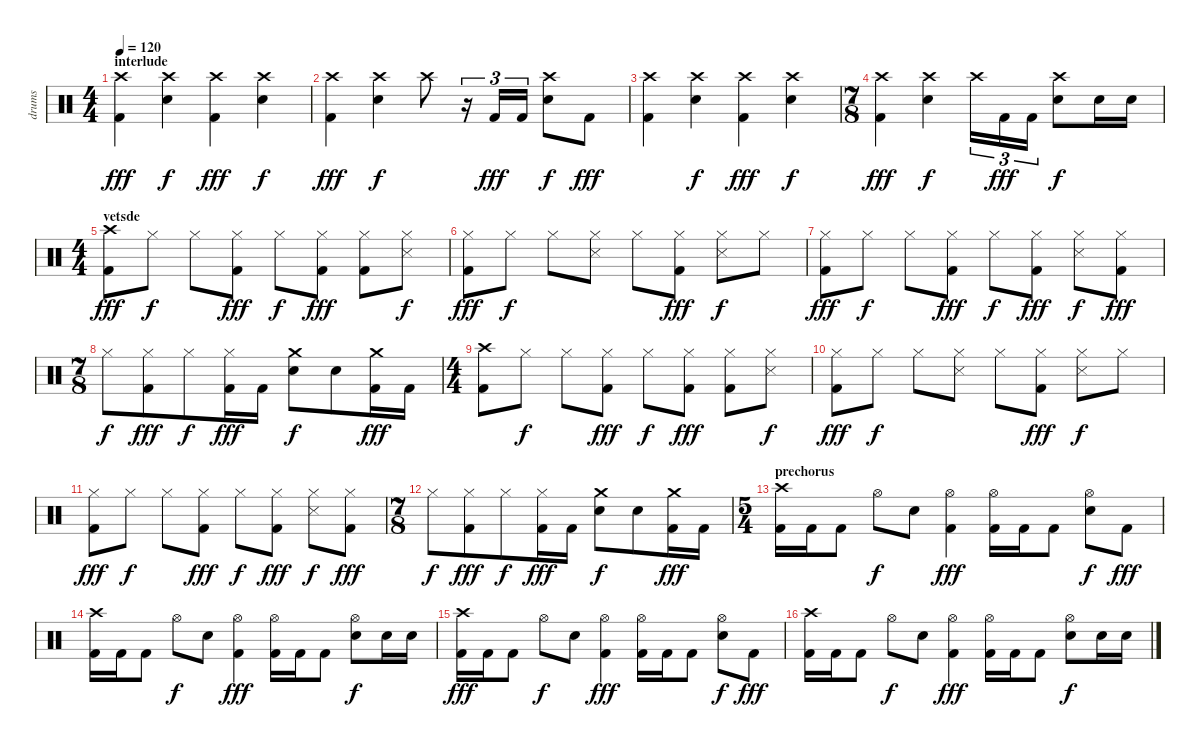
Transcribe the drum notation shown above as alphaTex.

\track ("drums" "drums") {instrument percussion}
\staff {score}
\articulation defaults
\ts (4 4)
\section ("" "interlude")
\tempo 120
\clef neutral
\ks c
("Crash high (hit)" "Kick (hit) 2").4{dy fff} ("Crash high (hit)" "Snare (hit) 2").4{dy f} ("Crash high (hit)" "Kick (hit) 2").4{dy fff} ("Crash high (hit)" "Snare (hit) 2").4{dy f} |
("Crash high (hit)" "Kick (hit) 2").4{dy fff} ("Crash high (hit)" "Snare (hit) 2").4{dy f} "Crash high (hit)".8 r.16{tu (3 2)} "Kick (hit) 2".16{tu (3 2) dy fff} "Kick (hit) 2".16{tu (3 2)} ("Crash high (hit)" "Snare (hit) 2").8{dy f} "Kick (hit) 2".8{dy fff} |
("Crash high (hit)" "Kick (hit) 2").4 ("Crash high (hit)" "Snare (hit) 2").4{dy f} ("Crash high (hit)" "Kick (hit) 2").4{dy fff} ("Crash high (hit)" "Snare (hit) 2").4{dy f} |
\ts (7 8)
("Crash high (hit)" "Kick (hit) 2").4{dy fff} ("Crash high (hit)" "Snare (hit) 2").4{dy f} "Crash high (hit)".16{tu (3 2)} "Kick (hit) 2".16{tu (3 2) dy fff} "Kick (hit) 2".16{tu (3 2)} ("Crash high (hit)" "Snare (hit) 2").8{dy f} "Snare (hit) 2".16 "Snare (hit) 2".16 |
\ts (4 4)
\section ("" "vetsde")
("Crash high (hit)" "Kick (hit) 2").8{dy fff} "Hi-Hat (closed)".8{dy f} "Hi-Hat (closed)".8 ("Hi-Hat (closed)" "Kick (hit) 2").8{dy fff} "Hi-Hat (closed)".8{dy f} ("Hi-Hat (closed)" "Kick (hit) 2").8{dy fff} ("Hi-Hat (closed)" "Kick (hit) 2").8 ("Hi-Hat (closed)" "Snare (side stick) 3").8{dy f} |
("Hi-Hat (closed)" "Kick (hit) 2").8{dy fff} "Hi-Hat (closed)".8{dy f} "Hi-Hat (closed)".8 ("Hi-Hat (closed)" "Snare (side stick) 3").8 "Hi-Hat (closed)".8 ("Hi-Hat (closed)" "Kick (hit) 2").8{dy fff} ("Hi-Hat (closed)" "Snare (side stick) 3").8{dy f} "Hi-Hat (closed)".8 |
("Hi-Hat (closed)" "Kick (hit) 2").8{dy fff} "Hi-Hat (closed)".8{dy f} "Hi-Hat (closed)".8 ("Hi-Hat (closed)" "Kick (hit) 2").8{dy fff} "Hi-Hat (closed)".8{dy f} ("Hi-Hat (closed)" "Kick (hit) 2").8{dy fff} ("Hi-Hat (closed)" "Snare (side stick) 3").8{dy f} ("Hi-Hat (closed)" "Kick (hit) 2").8{dy fff} |
\ts (7 8)
"Hi-Hat (closed)".8{dy f} ("Hi-Hat (closed)" "Kick (hit) 2").8{dy fff} "Hi-Hat (closed)".8{dy f} ("Hi-Hat (closed)" "Kick (hit) 2").16{dy fff} "Kick (hit) 2".16 ("Crash medium (hit)" "Snare (hit) 2").8{dy f} "Snare (hit) 2".8 ("Crash medium (hit)" "Kick (hit) 2").16{dy fff} "Kick (hit) 2".16 |
\ts (4 4)
("Crash high (hit)" "Kick (hit) 2").8 "Hi-Hat (closed)".8{dy f} "Hi-Hat (closed)".8 ("Hi-Hat (closed)" "Kick (hit) 2").8{dy fff} "Hi-Hat (closed)".8{dy f} ("Hi-Hat (closed)" "Kick (hit) 2").8{dy fff} ("Hi-Hat (closed)" "Kick (hit) 2").8 ("Hi-Hat (closed)" "Snare (side stick) 3").8{dy f} |
("Hi-Hat (closed)" "Kick (hit) 2").8{dy fff} "Hi-Hat (closed)".8{dy f} "Hi-Hat (closed)".8 ("Hi-Hat (closed)" "Snare (side stick) 3").8 "Hi-Hat (closed)".8 ("Hi-Hat (closed)" "Kick (hit) 2").8{dy fff} ("Hi-Hat (closed)" "Snare (side stick) 3").8{dy f} "Hi-Hat (closed)".8 |
("Hi-Hat (closed)" "Kick (hit) 2").8{dy fff} "Hi-Hat (closed)".8{dy f} "Hi-Hat (closed)".8 ("Hi-Hat (closed)" "Kick (hit) 2").8{dy fff} "Hi-Hat (closed)".8{dy f} ("Hi-Hat (closed)" "Kick (hit) 2").8{dy fff} ("Hi-Hat (closed)" "Snare (side stick) 3").8{dy f} ("Hi-Hat (closed)" "Kick (hit) 2").8{dy fff} |
\ts (7 8)
"Hi-Hat (closed)".8{dy f} ("Hi-Hat (closed)" "Kick (hit) 2").8{dy fff} "Hi-Hat (closed)".8{dy f} ("Hi-Hat (closed)" "Kick (hit) 2").16{dy fff} "Kick (hit) 2".16 ("Crash medium (hit)" "Snare (hit) 2").8{dy f} "Snare (hit) 2".8 ("Crash medium (hit)" "Kick (hit) 2").16{dy fff} "Kick (hit) 2".16 |
\ts (5 4)
\section ("" "prechorus")
("Crash high (hit)" "Kick (hit) 2").16 "Kick (hit) 2".16 "Kick (hit) 2".8 "Hi-Hat (open)".8{dy f} "Snare (hit) 2".8 ("Hi-Hat (open)" "Kick (hit) 2").4{dy fff} ("Hi-Hat (open)" "Kick (hit) 2").16 "Kick (hit) 2".16 "Kick (hit) 2".8 ("Hi-Hat (open)" "Snare (hit) 2").8{dy f} "Kick (hit) 2".8{dy fff} |
("Crash high (hit)" "Kick (hit) 2").16 "Kick (hit) 2".16 "Kick (hit) 2".8 "Hi-Hat (open)".8{dy f} "Snare (hit) 2".8 ("Hi-Hat (open)" "Kick (hit) 2").4{dy fff} ("Hi-Hat (open)" "Kick (hit) 2").16 "Kick (hit) 2".16 "Kick (hit) 2".8 ("Hi-Hat (open)" "Snare (hit) 2").8{dy f} "Snare (hit) 2".16 "Snare (hit) 2".16 |
("Crash high (hit)" "Kick (hit) 2").16{dy fff} "Kick (hit) 2".16 "Kick (hit) 2".8 "Hi-Hat (open)".8{dy f} "Snare (hit) 2".8 ("Hi-Hat (open)" "Kick (hit) 2").4{dy fff} ("Hi-Hat (open)" "Kick (hit) 2").16 "Kick (hit) 2".16 "Kick (hit) 2".8 ("Hi-Hat (open)" "Snare (hit) 2").8{dy f} "Kick (hit) 2".8{dy fff} |
("Crash high (hit)" "Kick (hit) 2").16 "Kick (hit) 2".16 "Kick (hit) 2".8 "Hi-Hat (open)".8{dy f} "Snare (hit) 2".8 ("Hi-Hat (open)" "Kick (hit) 2").4{dy fff} ("Hi-Hat (open)" "Kick (hit) 2").16 "Kick (hit) 2".16 "Kick (hit) 2".8 ("Hi-Hat (open)" "Snare (hit) 2").8{dy f} "Snare (hit) 2".16 "Snare (hit) 2".16
